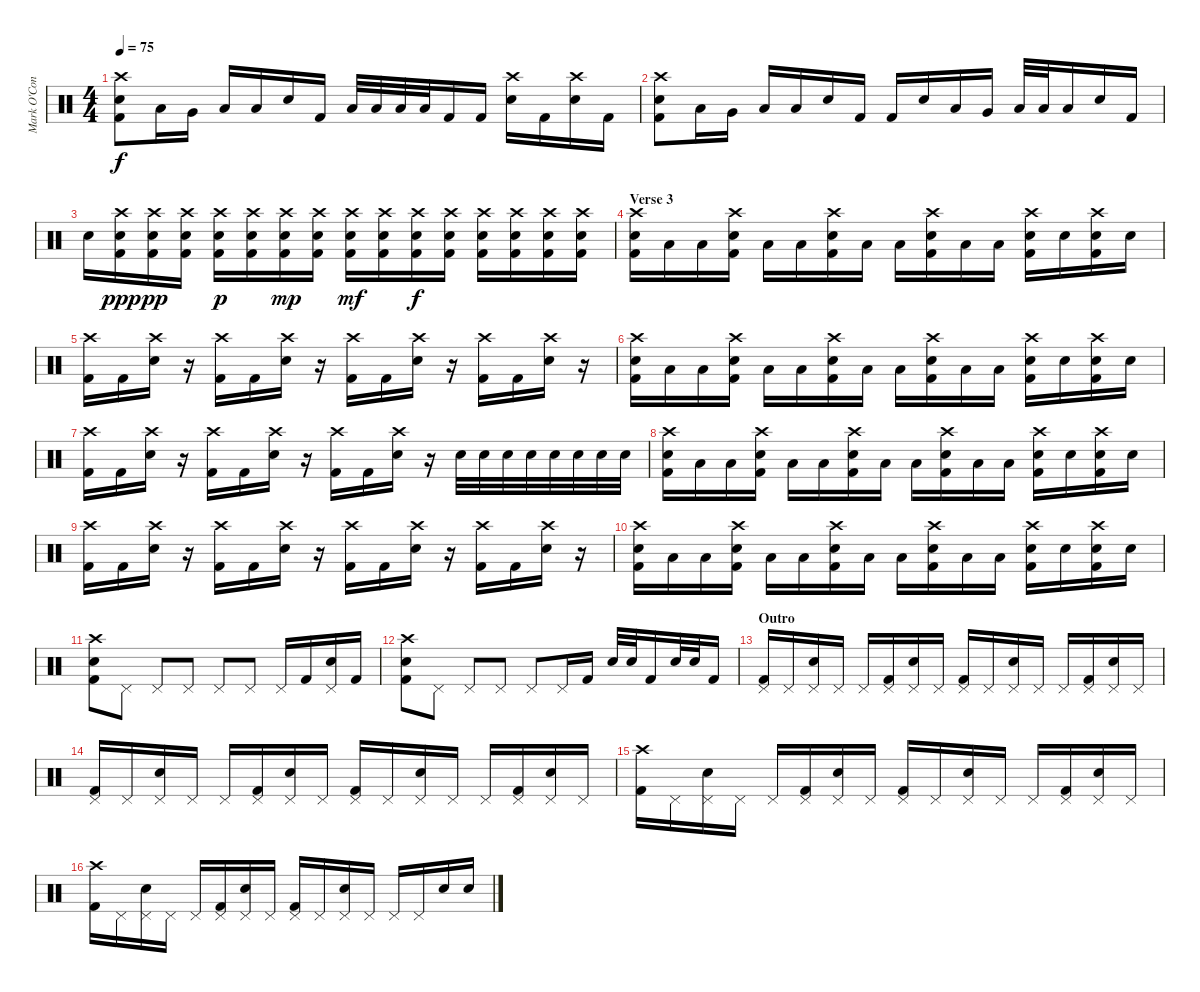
\track ("Mark O'Connell (Drums)" "Mark O'Con") {instrument percussion}
\staff {score}
\articulation defaults
\ts (4 4)
\tempo 75
\clef neutral
\ks c
("Crash high (hit)" "Electric Snare (hit)" "Kick (hit) 2").8{dy f} "Low Tom (hit)".16 "Very Low Tom (hit)".16 "Low Floor Tom (hit)".16 "Low Floor Tom (hit)".16 "Electric Snare (hit)".16 "Kick (hit) 2".16 "Low Floor Tom (hit)".32 "Low Floor Tom (hit)".32 "Low Floor Tom (hit)".32 "Low Floor Tom (hit)".32 "Kick (hit) 2".16 "Kick (hit) 2".16 ("Crash high (hit)" "Electric Snare (hit)").16 "Kick (hit) 2".16 ("Crash high (hit)" "Electric Snare (hit)").16 "Kick (hit) 2".16 |
("Crash high (hit)" "Electric Snare (hit)" "Kick (hit) 2").8 "Low Tom (hit)".16 "Very Low Tom (hit)".16 "Low Floor Tom (hit)".16 "Low Floor Tom (hit)".16 "Electric Snare (hit)".16 "Kick (hit) 2".16 "Kick (hit) 2".16 "Electric Snare (hit)".16 "Low Tom (hit)".16 "Very Low Tom (hit)".16 "Low Floor Tom (hit)".32 "Low Floor Tom (hit)".32 "Low Floor Tom (hit)".16 "Electric Snare (hit)".16 "Kick (hit) 2".16 |
"Electric Snare (hit)".16 ("Crash high (hit)" "Electric Snare (hit)" "Kick (hit) 2").16{dy ppp} ("Crash high (hit)" "Electric Snare (hit)" "Kick (hit) 2").16{dy pp} ("Crash high (hit)" "Electric Snare (hit)" "Kick (hit) 2").16 ("Crash high (hit)" "Electric Snare (hit)" "Kick (hit) 2").16{dy p} ("Crash high (hit)" "Electric Snare (hit)" "Kick (hit) 2").16 ("Crash high (hit)" "Electric Snare (hit)" "Kick (hit) 2").16{dy mp} ("Crash high (hit)" "Electric Snare (hit)" "Kick (hit) 2").16 ("Crash high (hit)" "Electric Snare (hit)" "Kick (hit) 2").16{dy mf} ("Crash high (hit)" "Electric Snare (hit)" "Kick (hit) 2").16 ("Crash high (hit)" "Electric Snare (hit)" "Kick (hit) 2").16{dy f} ("Crash high (hit)" "Electric Snare (hit)" "Kick (hit) 2").16 ("Crash high (hit)" "Electric Snare (hit)" "Kick (hit) 2").16 ("Crash high (hit)" "Electric Snare (hit)" "Kick (hit) 2").16 ("Crash high (hit)" "Electric Snare (hit)" "Kick (hit) 2").16 ("Crash high (hit)" "Electric Snare (hit)" "Kick (hit) 2").16 |
\section ("" "Verse 3")
("Crash high (hit)" "Electric Snare (hit)" "Kick (hit) 2").16 "Low Tom (hit)".16 "Low Tom (hit)".16 ("Crash high (hit)" "Electric Snare (hit)" "Kick (hit) 2").16 "Low Tom (hit)".16 "Low Tom (hit)".16 ("Crash high (hit)" "Electric Snare (hit)" "Kick (hit) 2").16 "Low Tom (hit)".16 "Low Tom (hit)".16 ("Crash high (hit)" "Electric Snare (hit)" "Kick (hit) 2").16 "Low Tom (hit)".16 "Low Tom (hit)".16 ("Crash high (hit)" "Electric Snare (hit)" "Kick (hit) 2").16 "Electric Snare (hit)".16 ("Crash high (hit)" "Electric Snare (hit)" "Kick (hit) 2").16 "Electric Snare (hit)".16 |
("Crash high (hit)" "Kick (hit) 2").16 "Kick (hit) 2".16 ("Crash high (hit)" "Electric Snare (hit)").16 r.16 ("Crash high (hit)" "Kick (hit) 2").16 "Kick (hit) 2".16 ("Crash high (hit)" "Electric Snare (hit)").16 r.16 ("Crash high (hit)" "Kick (hit) 2").16 "Kick (hit) 2".16 ("Crash high (hit)" "Electric Snare (hit)").16 r.16 ("Crash high (hit)" "Kick (hit) 2").16 "Kick (hit) 2".16 ("Crash high (hit)" "Electric Snare (hit)").16 r.16 |
("Crash high (hit)" "Electric Snare (hit)" "Kick (hit) 2").16 "Low Tom (hit)".16 "Low Tom (hit)".16 ("Crash high (hit)" "Electric Snare (hit)" "Kick (hit) 2").16 "Low Tom (hit)".16 "Low Tom (hit)".16 ("Crash high (hit)" "Electric Snare (hit)" "Kick (hit) 2").16 "Low Tom (hit)".16 "Low Tom (hit)".16 ("Crash high (hit)" "Electric Snare (hit)" "Kick (hit) 2").16 "Low Tom (hit)".16 "Low Tom (hit)".16 ("Crash high (hit)" "Electric Snare (hit)" "Kick (hit) 2").16 "Electric Snare (hit)".16 ("Crash high (hit)" "Electric Snare (hit)" "Kick (hit) 2").16 "Electric Snare (hit)".16 |
("Crash high (hit)" "Kick (hit) 2").16 "Kick (hit) 2".16 ("Crash high (hit)" "Electric Snare (hit)").16 r.16 ("Crash high (hit)" "Kick (hit) 2").16 "Kick (hit) 2".16 ("Crash high (hit)" "Electric Snare (hit)").16 r.16 ("Crash high (hit)" "Kick (hit) 2").16 "Kick (hit) 2".16 ("Crash high (hit)" "Electric Snare (hit)").16 r.16 "Electric Snare (hit)".32 "Electric Snare (hit)".32 "Electric Snare (hit)".32 "Electric Snare (hit)".32 "Electric Snare (hit)".32 "Electric Snare (hit)".32 "Electric Snare (hit)".32 "Electric Snare (hit)".32 |
("Crash high (hit)" "Electric Snare (hit)" "Kick (hit) 2").16 "Low Tom (hit)".16 "Low Tom (hit)".16 ("Crash high (hit)" "Electric Snare (hit)" "Kick (hit) 2").16 "Low Tom (hit)".16 "Low Tom (hit)".16 ("Crash high (hit)" "Electric Snare (hit)" "Kick (hit) 2").16 "Low Tom (hit)".16 "Low Tom (hit)".16 ("Crash high (hit)" "Electric Snare (hit)" "Kick (hit) 2").16 "Low Tom (hit)".16 "Low Tom (hit)".16 ("Crash high (hit)" "Electric Snare (hit)" "Kick (hit) 2").16 "Electric Snare (hit)".16 ("Crash high (hit)" "Electric Snare (hit)" "Kick (hit) 2").16 "Electric Snare (hit)".16 |
("Crash high (hit)" "Kick (hit) 2").16 "Kick (hit) 2".16 ("Crash high (hit)" "Electric Snare (hit)").16 r.16 ("Crash high (hit)" "Kick (hit) 2").16 "Kick (hit) 2".16 ("Crash high (hit)" "Electric Snare (hit)").16 r.16 ("Crash high (hit)" "Kick (hit) 2").16 "Kick (hit) 2".16 ("Crash high (hit)" "Electric Snare (hit)").16 r.16 ("Crash high (hit)" "Kick (hit) 2").16 "Kick (hit) 2".16 ("Crash high (hit)" "Electric Snare (hit)").16 r.16 |
("Crash high (hit)" "Electric Snare (hit)" "Kick (hit) 2").16 "Low Tom (hit)".16 "Low Tom (hit)".16 ("Crash high (hit)" "Electric Snare (hit)" "Kick (hit) 2").16 "Low Tom (hit)".16 "Low Tom (hit)".16 ("Crash high (hit)" "Electric Snare (hit)" "Kick (hit) 2").16 "Low Tom (hit)".16 "Low Tom (hit)".16 ("Crash high (hit)" "Electric Snare (hit)" "Kick (hit) 2").16 "Low Tom (hit)".16 "Low Tom (hit)".16 ("Crash high (hit)" "Electric Snare (hit)" "Kick (hit) 2").16 "Electric Snare (hit)".16 ("Crash high (hit)" "Electric Snare (hit)" "Kick (hit) 2").16 "Electric Snare (hit)".16 |
("Crash high (hit)" "Electric Snare (hit)" "Kick (hit) 2").8 "Pedal Hi-Hat (hit)".8 "Pedal Hi-Hat (hit)".8 "Pedal Hi-Hat (hit)".8 "Pedal Hi-Hat (hit)".8 "Pedal Hi-Hat (hit)".8 "Pedal Hi-Hat (hit)".16 "Kick (hit) 2".16 ("Pedal Hi-Hat (hit)" "Electric Snare (hit)").16 "Kick (hit) 2".16 |
("Crash high (hit)" "Electric Snare (hit)" "Kick (hit) 2").8 "Pedal Hi-Hat (hit)".8 "Pedal Hi-Hat (hit)".8 "Pedal Hi-Hat (hit)".8 "Pedal Hi-Hat (hit)".8 "Pedal Hi-Hat (hit)".16 "Kick (hit) 2".16 "Electric Snare (hit)".32 "Electric Snare (hit)".32 "Kick (hit) 2".16 "Electric Snare (hit)".32 "Electric Snare (hit)".32 "Kick (hit) 2".16 |
\section ("" "Outro")
("Pedal Hi-Hat (hit)" "Kick (hit) 2").16 "Pedal Hi-Hat (hit)".16 ("Pedal Hi-Hat (hit)" "Electric Snare (hit)").16 "Pedal Hi-Hat (hit)".16 "Pedal Hi-Hat (hit)".16 ("Pedal Hi-Hat (hit)" "Kick (hit) 2").16 ("Pedal Hi-Hat (hit)" "Electric Snare (hit)").16 "Pedal Hi-Hat (hit)".16 ("Pedal Hi-Hat (hit)" "Kick (hit) 2").16 "Pedal Hi-Hat (hit)".16 ("Pedal Hi-Hat (hit)" "Electric Snare (hit)").16 "Pedal Hi-Hat (hit)".16 "Pedal Hi-Hat (hit)".16 ("Pedal Hi-Hat (hit)" "Kick (hit) 2").16 ("Pedal Hi-Hat (hit)" "Electric Snare (hit)").16 "Pedal Hi-Hat (hit)".16 |
("Pedal Hi-Hat (hit)" "Kick (hit) 2").16 "Pedal Hi-Hat (hit)".16 ("Pedal Hi-Hat (hit)" "Electric Snare (hit)").16 "Pedal Hi-Hat (hit)".16 "Pedal Hi-Hat (hit)".16 ("Pedal Hi-Hat (hit)" "Kick (hit) 2").16 ("Pedal Hi-Hat (hit)" "Electric Snare (hit)").16 "Pedal Hi-Hat (hit)".16 ("Pedal Hi-Hat (hit)" "Kick (hit) 2").16 "Pedal Hi-Hat (hit)".16 ("Pedal Hi-Hat (hit)" "Electric Snare (hit)").16 "Pedal Hi-Hat (hit)".16 "Pedal Hi-Hat (hit)".16 ("Pedal Hi-Hat (hit)" "Kick (hit) 2").16 ("Pedal Hi-Hat (hit)" "Electric Snare (hit)").16 "Pedal Hi-Hat (hit)".16 |
("Crash high (hit)" "Kick (hit) 2").16 "Pedal Hi-Hat (hit)".16 ("Pedal Hi-Hat (hit)" "Electric Snare (hit)").16 "Pedal Hi-Hat (hit)".16 "Pedal Hi-Hat (hit)".16 ("Pedal Hi-Hat (hit)" "Kick (hit) 2").16 ("Pedal Hi-Hat (hit)" "Electric Snare (hit)").16 "Pedal Hi-Hat (hit)".16 ("Pedal Hi-Hat (hit)" "Kick (hit) 2").16 "Pedal Hi-Hat (hit)".16 ("Pedal Hi-Hat (hit)" "Electric Snare (hit)").16 "Pedal Hi-Hat (hit)".16 "Pedal Hi-Hat (hit)".16 ("Pedal Hi-Hat (hit)" "Kick (hit) 2").16 ("Pedal Hi-Hat (hit)" "Electric Snare (hit)").16 "Pedal Hi-Hat (hit)".16 |
("Crash high (hit)" "Kick (hit) 2").16 "Pedal Hi-Hat (hit)".16 ("Pedal Hi-Hat (hit)" "Electric Snare (hit)").16 "Pedal Hi-Hat (hit)".16 "Pedal Hi-Hat (hit)".16 ("Pedal Hi-Hat (hit)" "Kick (hit) 2").16 ("Pedal Hi-Hat (hit)" "Electric Snare (hit)").16 "Pedal Hi-Hat (hit)".16 ("Pedal Hi-Hat (hit)" "Kick (hit) 2").16 "Pedal Hi-Hat (hit)".16 ("Pedal Hi-Hat (hit)" "Electric Snare (hit)").16 "Pedal Hi-Hat (hit)".16 "Pedal Hi-Hat (hit)".16 "Pedal Hi-Hat (hit)".16 "Electric Snare (hit)".16 "Electric Snare (hit)".16
